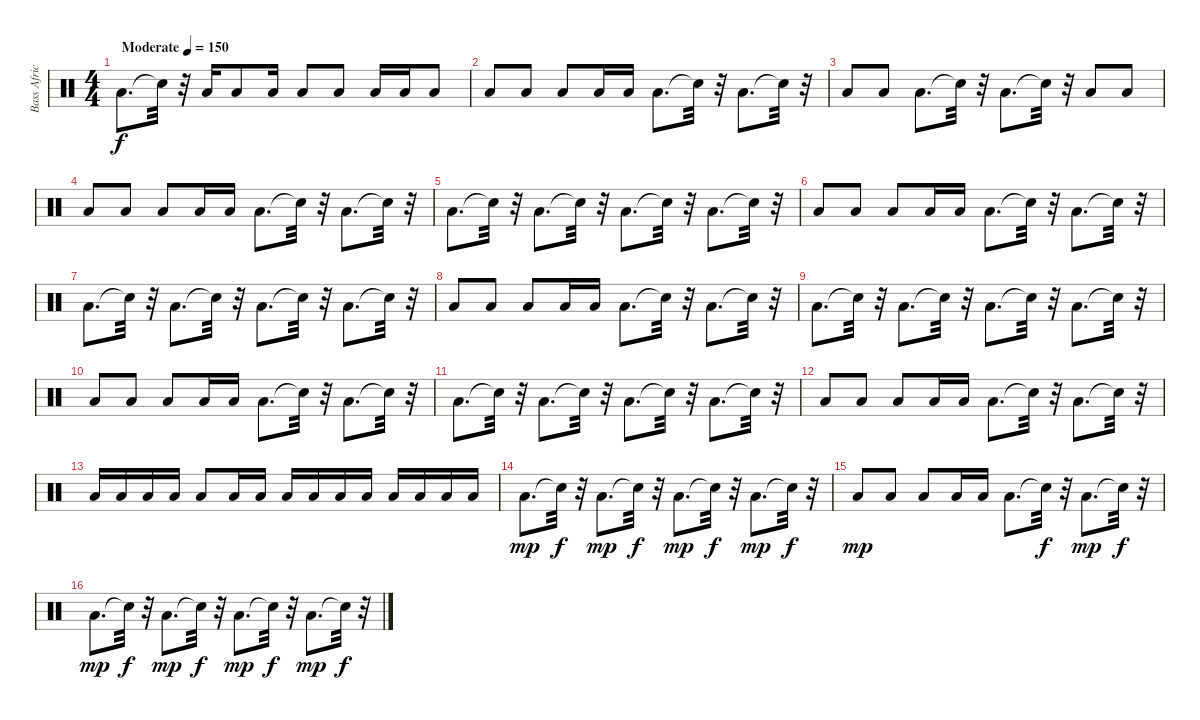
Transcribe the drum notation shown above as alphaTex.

\track ("Bass African Drum" "Bass Afric") {instrument percussion}
\staff {score}
\articulation defaults
\ts (4 4)
\tempo (150 "Moderate")
\clef neutral
\ks c "Low Floor Tom (hit)".8{d dy f} "Snare (hit)"{t}.32
r.32 "Low Floor Tom (hit)".16 "Low Floor Tom (hit)".8 "Low Floor Tom (hit)".16 "Low Floor Tom (hit)".8 "Low Floor Tom (hit)".8 "Low Floor Tom (hit)".16 "Low Floor Tom (hit)".16 "Low Floor Tom (hit)".8 |
"Low Floor Tom (hit)".8 "Low Floor Tom (hit)".8 "Low Floor Tom (hit)".8 "Low Floor Tom (hit)".16 "Low Floor Tom (hit)".16 "Low Floor Tom (hit)".8{d} "Snare (hit)"{t}.32 r.32 "Low Floor Tom (hit)".8{d} "Snare (hit)"{t}.32 r.32 |
"Low Floor Tom (hit)".8 "Low Floor Tom (hit)".8 "Low Floor Tom (hit)".8{d} "Snare (hit)"{t}.32 r.32 "Low Floor Tom (hit)".8{d} "Snare (hit)"{t}.32 r.32 "Low Floor Tom (hit)".8 "Low Floor Tom (hit)".8 |
"Low Floor Tom (hit)".8 "Low Floor Tom (hit)".8 "Low Floor Tom (hit)".8 "Low Floor Tom (hit)".16 "Low Floor Tom (hit)".16 "Low Floor Tom (hit)".8{d} "Snare (hit)"{t}.32 r.32 "Low Floor Tom (hit)".8{d} "Snare (hit)"{t}.32 r.32 |
"Low Floor Tom (hit)".8{d} "Snare (hit)"{t}.32 r.32 "Low Floor Tom (hit)".8{d} "Snare (hit)"{t}.32 r.32 "Low Floor Tom (hit)".8{d} "Snare (hit)"{t}.32 r.32 "Low Floor Tom (hit)".8{d} "Snare (hit)"{t}.32 r.32 |
"Low Floor Tom (hit)".8 "Low Floor Tom (hit)".8 "Low Floor Tom (hit)".8 "Low Floor Tom (hit)".16 "Low Floor Tom (hit)".16 "Low Floor Tom (hit)".8{d} "Snare (hit)"{t}.32 r.32 "Low Floor Tom (hit)".8{d} "Snare (hit)"{t}.32 r.32 |
"Low Floor Tom (hit)".8{d} "Snare (hit)"{t}.32 r.32 "Low Floor Tom (hit)".8{d} "Snare (hit)"{t}.32 r.32 "Low Floor Tom (hit)".8{d} "Snare (hit)"{t}.32 r.32 "Low Floor Tom (hit)".8{d} "Snare (hit)"{t}.32 r.32 |
"Low Floor Tom (hit)".8 "Low Floor Tom (hit)".8 "Low Floor Tom (hit)".8 "Low Floor Tom (hit)".16 "Low Floor Tom (hit)".16 "Low Floor Tom (hit)".8{d} "Snare (hit)"{t}.32 r.32 "Low Floor Tom (hit)".8{d} "Snare (hit)"{t}.32 r.32 |
"Low Floor Tom (hit)".8{d} "Snare (hit)"{t}.32 r.32 "Low Floor Tom (hit)".8{d} "Snare (hit)"{t}.32 r.32 "Low Floor Tom (hit)".8{d} "Snare (hit)"{t}.32 r.32 "Low Floor Tom (hit)".8{d} "Snare (hit)"{t}.32 r.32 |
"Low Floor Tom (hit)".8 "Low Floor Tom (hit)".8 "Low Floor Tom (hit)".8 "Low Floor Tom (hit)".16 "Low Floor Tom (hit)".16 "Low Floor Tom (hit)".8{d} "Snare (hit)"{t}.32 r.32 "Low Floor Tom (hit)".8{d} "Snare (hit)"{t}.32 r.32 |
"Low Floor Tom (hit)".8{d} "Snare (hit)"{t}.32 r.32 "Low Floor Tom (hit)".8{d} "Snare (hit)"{t}.32 r.32 "Low Floor Tom (hit)".8{d} "Snare (hit)"{t}.32 r.32 "Low Floor Tom (hit)".8{d} "Snare (hit)"{t}.32 r.32 |
"Low Floor Tom (hit)".8 "Low Floor Tom (hit)".8 "Low Floor Tom (hit)".8 "Low Floor Tom (hit)".16 "Low Floor Tom (hit)".16 "Low Floor Tom (hit)".8{d} "Snare (hit)"{t}.32 r.32 "Low Floor Tom (hit)".8{d} "Snare (hit)"{t}.32 r.32 |
"Low Floor Tom (hit)".16 "Low Floor Tom (hit)".16 "Low Floor Tom (hit)".16 "Low Floor Tom (hit)".16 "Low Floor Tom (hit)".8 "Low Floor Tom (hit)".16 "Low Floor Tom (hit)".16 "Low Floor Tom (hit)".16 "Low Floor Tom (hit)".16 "Low Floor Tom (hit)".16 "Low Floor Tom (hit)".16 "Low Floor Tom (hit)".16 "Low Floor Tom (hit)".16 "Low Floor Tom (hit)".16 "Low Floor Tom (hit)".16 |
"Low Floor Tom (hit)".8{d dy mp} "Snare (hit)"{t}.32{dy f} r.32 "Low Floor Tom (hit)".8{d dy mp} "Snare (hit)"{t}.32{dy f} r.32 "Low Floor Tom (hit)".8{d dy mp} "Snare (hit)"{t}.32{dy f} r.32 "Low Floor Tom (hit)".8{d dy mp} "Snare (hit)"{t}.32{dy f} r.32 |
"Low Floor Tom (hit)".8{dy mp} "Low Floor Tom (hit)".8 "Low Floor Tom (hit)".8 "Low Floor Tom (hit)".16 "Low Floor Tom (hit)".16 "Low Floor Tom (hit)".8{d} "Snare (hit)"{t}.32{dy f} r.32 "Low Floor Tom (hit)".8{d dy mp} "Snare (hit)"{t}.32{dy f} r.32 |
"Low Floor Tom (hit)".8{d dy mp} "Snare (hit)"{t}.32{dy f} r.32 "Low Floor Tom (hit)".8{d dy mp} "Snare (hit)"{t}.32{dy f} r.32 "Low Floor Tom (hit)".8{d dy mp} "Snare (hit)"{t}.32{dy f} r.32 "Low Floor Tom (hit)".8{d dy mp} "Snare (hit)"{t}.32{dy f} r.32
